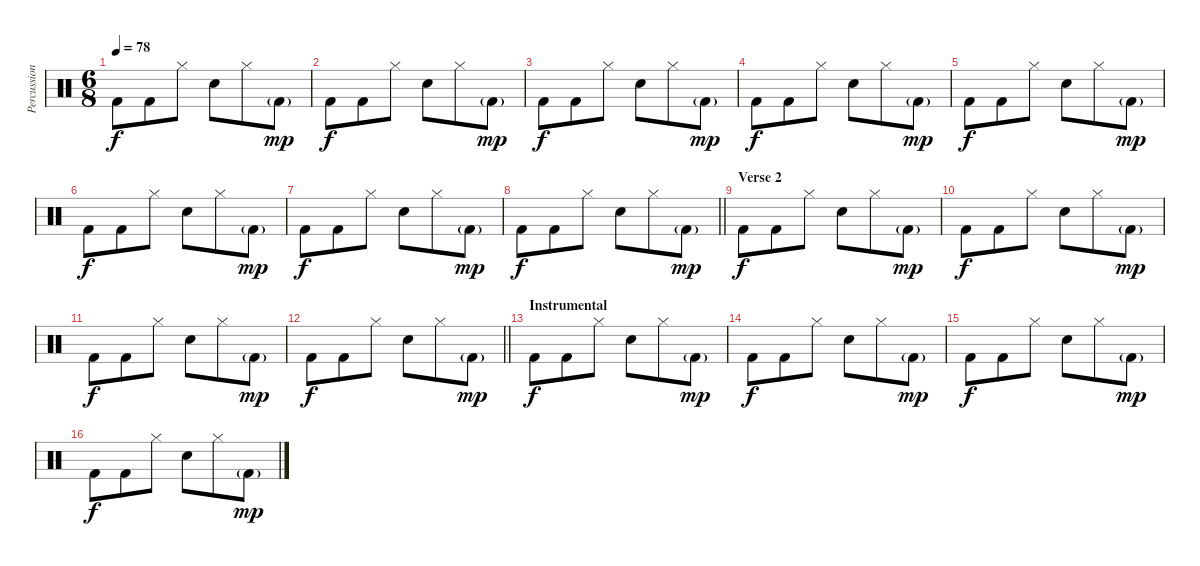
\track ("Percussion" "Percussion") {instrument percussion}
\staff {score}
\articulation defaults
\ts (6 8)
\tempo 78
\clef neutral
\ks c "Kick (hit) 2".8{dy f} "Kick (hit) 2".8 "Hi-Hat (closed)".8 "Snare (hit) 2".8 "Hi-Hat (closed)".8 "Kick (hit) 2"{g}.8{dy mp}
|
"Kick (hit) 2".8{dy f} "Kick (hit) 2".8 "Hi-Hat (closed)".8 "Snare (hit) 2".8 "Hi-Hat (closed)".8 "Kick (hit) 2"{g}.8{dy mp} |
"Kick (hit) 2".8{dy f} "Kick (hit) 2".8 "Hi-Hat (closed)".8 "Snare (hit) 2".8 "Hi-Hat (closed)".8 "Kick (hit) 2"{g}.8{dy mp} |
"Kick (hit) 2".8{dy f} "Kick (hit) 2".8 "Hi-Hat (closed)".8 "Snare (hit) 2".8 "Hi-Hat (closed)".8 "Kick (hit) 2"{g}.8{dy mp} |
"Kick (hit) 2".8{dy f} "Kick (hit) 2".8 "Hi-Hat (closed)".8 "Snare (hit) 2".8 "Hi-Hat (closed)".8 "Kick (hit) 2"{g}.8{dy mp} |
"Kick (hit) 2".8{dy f} "Kick (hit) 2".8 "Hi-Hat (closed)".8 "Snare (hit) 2".8 "Hi-Hat (closed)".8 "Kick (hit) 2"{g}.8{dy mp} |
"Kick (hit) 2".8{dy f} "Kick (hit) 2".8 "Hi-Hat (closed)".8 "Snare (hit) 2".8 "Hi-Hat (closed)".8 "Kick (hit) 2"{g}.8{dy mp} |
\barLineRight lightlight "Kick (hit) 2".8{dy f} "Kick (hit) 2".8 "Hi-Hat (closed)".8 "Snare (hit) 2".8 "Hi-Hat (closed)".8 "Kick (hit) 2"{g}.8{dy mp}
|
\section ("" "Verse 2")
"Kick (hit) 2".8{dy f} "Kick (hit) 2".8 "Hi-Hat (closed)".8 "Snare (hit) 2".8 "Hi-Hat (closed)".8 "Kick (hit) 2"{g}.8{dy mp} |
"Kick (hit) 2".8{dy f} "Kick (hit) 2".8 "Hi-Hat (closed)".8 "Snare (hit) 2".8 "Hi-Hat (closed)".8 "Kick (hit) 2"{g}.8{dy mp} |
"Kick (hit) 2".8{dy f} "Kick (hit) 2".8 "Hi-Hat (closed)".8 "Snare (hit) 2".8 "Hi-Hat (closed)".8 "Kick (hit) 2"{g}.8{dy mp} |
\barLineRight lightlight "Kick (hit) 2".8{dy f} "Kick (hit) 2".8 "Hi-Hat (closed)".8 "Snare (hit) 2".8 "Hi-Hat (closed)".8 "Kick (hit) 2"{g}.8{dy mp}
|
\section ("" "Instrumental")
"Kick (hit) 2".8{dy f} "Kick (hit) 2".8 "Hi-Hat (closed)".8 "Snare (hit) 2".8 "Hi-Hat (closed)".8 "Kick (hit) 2"{g}.8{dy mp} |
"Kick (hit) 2".8{dy f} "Kick (hit) 2".8 "Hi-Hat (closed)".8 "Snare (hit) 2".8 "Hi-Hat (closed)".8 "Kick (hit) 2"{g}.8{dy mp} |
"Kick (hit) 2".8{dy f} "Kick (hit) 2".8 "Hi-Hat (closed)".8 "Snare (hit) 2".8 "Hi-Hat (closed)".8 "Kick (hit) 2"{g}.8{dy mp} |
"Kick (hit) 2".8{dy f} "Kick (hit) 2".8 "Hi-Hat (closed)".8 "Snare (hit) 2".8 "Hi-Hat (closed)".8 "Kick (hit) 2"{g}.8{dy mp}
